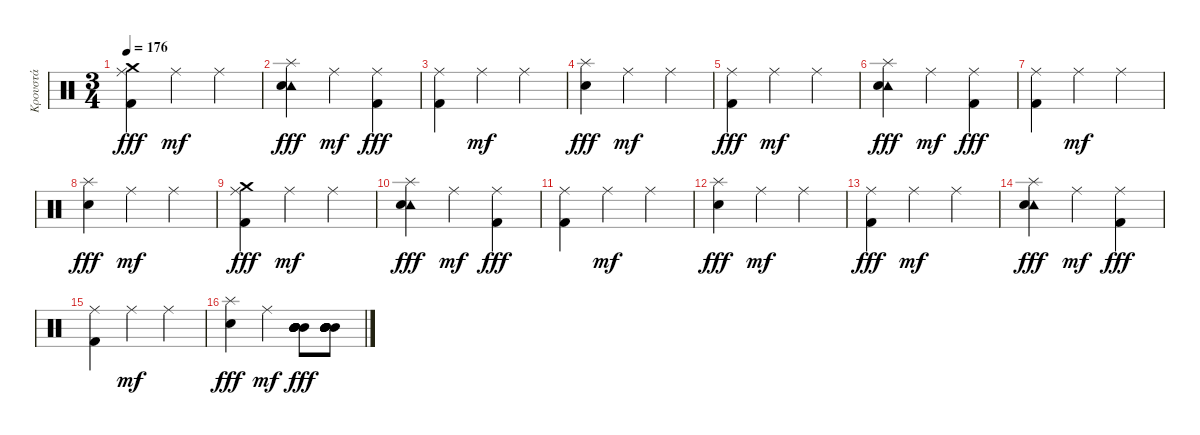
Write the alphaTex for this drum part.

\track ("Κρουστά" "Κρουστά") {instrument percussion}
\staff {score}
\articulation defaults
\ts (3 4)
\tempo 176
\clef neutral
\ks c
("Crash medium (hit)" "Ride (middle)" "Kick (hit) 2").4{dy fff} "Ride (middle)".4{dy mf} "Ride (middle)".4 |
("Splash (hit)" "Tambourine (hit)" "Snare (hit) 2").4{dy fff} "Ride (middle)".4{dy mf} ("Ride (middle)" "Kick (hit) 2").4{dy fff} |
("Ride (middle)" "Kick (hit) 2").4 "Ride (middle)".4{dy mf} "Ride (middle)".4 |
("Splash (hit)" "Snare (hit) 2").4{dy fff} "Ride (middle)".4{dy mf} "Ride (middle)".4 |
("Ride (middle)" "Kick (hit) 2").4{dy fff} "Ride (middle)".4{dy mf} "Ride (middle)".4 |
("Splash (hit)" "Tambourine (hit)" "Snare (hit) 2").4{dy fff} "Ride (middle)".4{dy mf} ("Ride (middle)" "Kick (hit) 2").4{dy fff} |
("Ride (middle)" "Kick (hit) 2").4 "Ride (middle)".4{dy mf} "Ride (middle)".4 |
("Splash (hit)" "Snare (hit) 2").4{dy fff} "Ride (middle)".4{dy mf} "Ride (middle)".4 |
("Crash medium (hit)" "Ride (middle)" "Kick (hit) 2").4{dy fff} "Ride (middle)".4{dy mf} "Ride (middle)".4 |
("Splash (hit)" "Tambourine (hit)" "Snare (hit) 2").4{dy fff} "Ride (middle)".4{dy mf} ("Ride (middle)" "Kick (hit) 2").4{dy fff} |
("Ride (middle)" "Kick (hit) 2").4 "Ride (middle)".4{dy mf} "Ride (middle)".4 |
("Splash (hit)" "Snare (hit) 2").4{dy fff} "Ride (middle)".4{dy mf} "Ride (middle)".4 |
("Ride (middle)" "Kick (hit) 2").4{dy fff} "Ride (middle)".4{dy mf} "Ride (middle)".4 |
("Splash (hit)" "Tambourine (hit)" "Snare (hit) 2").4{dy fff} "Ride (middle)".4{dy mf} ("Ride (middle)" "Kick (hit) 2").4{dy fff} |
("Ride (middle)" "Kick (hit) 2").4 "Ride (middle)".4{dy mf} "Ride (middle)".4 |
("Splash (hit)" "Snare (hit) 2").4{dy fff} "Ride (middle)".4{dy mf} ("Mid Tom (hit)" "Mid Tom (hit)" "Mid Tom (hit)" "Mid Tom (hit)" "Mid Tom (hit)" "Mid Tom (hit)").8{dy fff} ("Mid Tom (hit)" "Mid Tom (hit)" "Mid Tom (hit)" "Mid Tom (hit)" "Mid Tom (hit)" "Mid Tom (hit)").8
